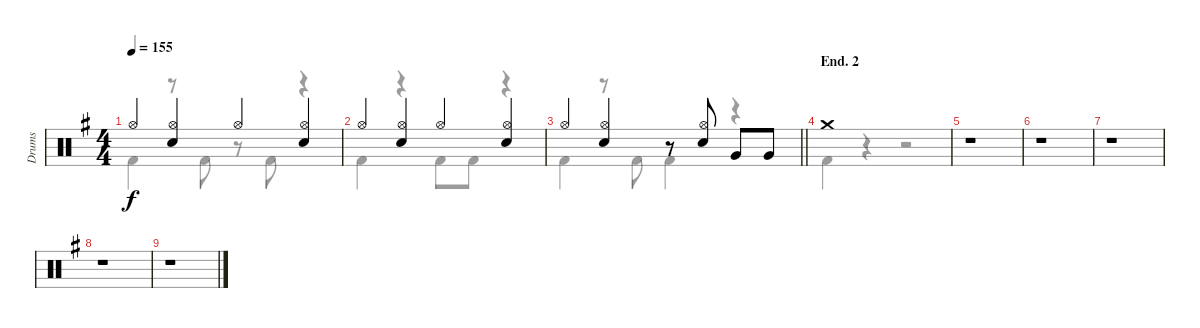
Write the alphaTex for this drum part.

\track ("Drums" "Drums") {instrument percussion}
\staff {score}
\articulation defaults
\voice
\ts (4 4)
\tempo 155
\clef neutral
\ks g "Hi-Hat (open)".4{dy f}
("Hi-Hat (open)" "Electric Snare (hit)").4 "Hi-Hat (open)".4 ("Hi-Hat (open)" "Electric Snare (hit)").4 |
"Hi-Hat (open)".4 ("Hi-Hat (open)" "Electric Snare (hit)").4 "Hi-Hat (open)".4 ("Hi-Hat (open)" "Electric Snare (hit)").4 |
\barLineRight lightlight "Hi-Hat (open)".4
("Hi-Hat (open)" "Electric Snare (hit)").4 r.8 ("Hi-Hat (open)" "Electric Snare (hit)").8 "Very Low Tom (hit)".8 "Very Low Tom (hit)".8 |
\section ("" "End. 2")
"Crash medium (hit)".1 |
r.1 |
r.1 |
r.1 |
r.1 |
r.1
\voice
\clef neutral
\ottava regular
\simile none
\ks g "Kick (hit) 2".4{dy f}
r.8 "Kick (hit) 2".8 r.8 "Kick (hit) 2".8 r.4 |
"Kick (hit) 2".4 r.4 "Kick (hit) 2".8 "Kick (hit) 2".8 r.4 |
\barLineRight lightlight "Kick (hit) 2".4
r.8 "Kick (hit) 2".8 "Kick (hit) 2".4 r.4 |
"Kick (hit) 2".4 r.4 r.2 |
|
|
|
|
